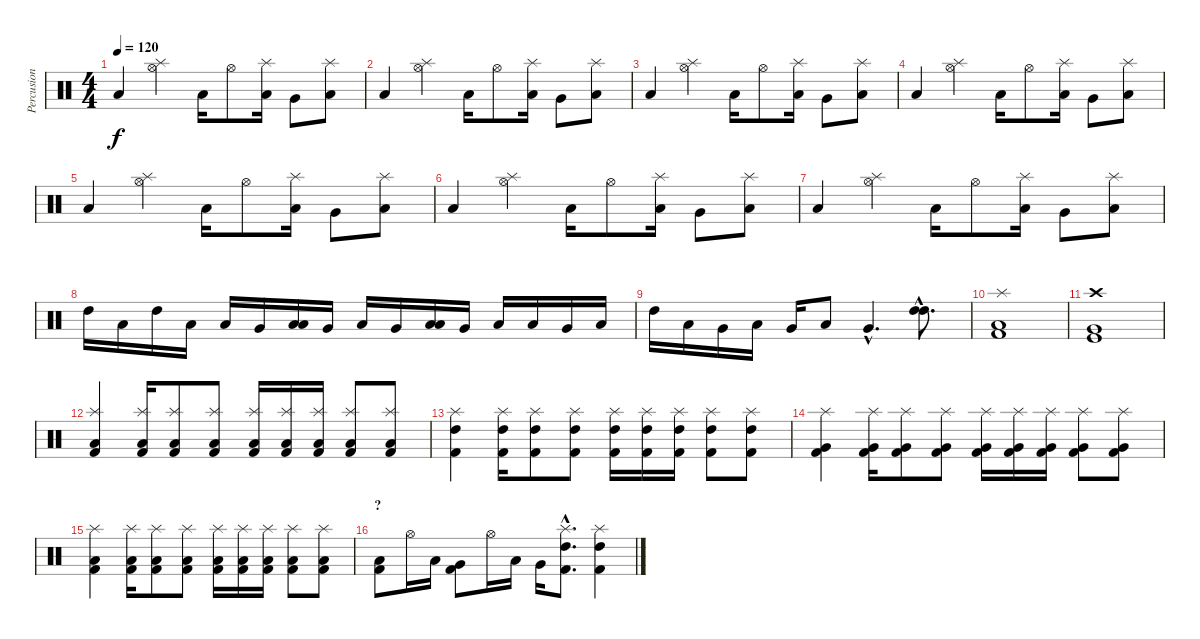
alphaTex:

\track ("Percusion" "Percusion") {instrument percussion}
\staff {score}
\articulation defaults
\ts (4 4)
\tempo 120
\clef neutral
\ks c "Low Tom (hit)".4{dy f}
("Hi-Hat (open)" "Splash (hit)").4 "Low Tom (hit)".16 "Hi-Hat (open)".8 ("Low Tom (hit)" "Splash (hit)").16 "Very Low Tom (hit)".8 ("Low Floor Tom (hit)" "Splash (hit)").8 |
"Low Tom (hit)".4 ("Hi-Hat (open)" "Splash (hit)").4 "Low Tom (hit)".16 "Hi-Hat (open)".8 ("Low Tom (hit)" "Splash (hit)").16 "Very Low Tom (hit)".8 ("Low Floor Tom (hit)" "Splash (hit)").8 |
"Low Tom (hit)".4 ("Hi-Hat (open)" "Splash (hit)").4 "Low Tom (hit)".16 "Hi-Hat (open)".8 ("Low Tom (hit)" "Splash (hit)").16 "Very Low Tom (hit)".8 ("Low Floor Tom (hit)" "Splash (hit)").8 |
"Low Tom (hit)".4 ("Hi-Hat (open)" "Splash (hit)").4 "Low Tom (hit)".16 "Hi-Hat (open)".8 ("Low Tom (hit)" "Splash (hit)").16 "Very Low Tom (hit)".8 ("Low Floor Tom (hit)" "Splash (hit)").8 |
"Low Tom (hit)".4 ("Hi-Hat (open)" "Splash (hit)").4 "Low Tom (hit)".16 "Hi-Hat (open)".8 ("Low Tom (hit)" "Splash (hit)").16 "Very Low Tom (hit)".8 ("Low Floor Tom (hit)" "Splash (hit)").8 |
"Low Tom (hit)".4 ("Hi-Hat (open)" "Splash (hit)").4 "Low Tom (hit)".16 "Hi-Hat (open)".8 ("Low Tom (hit)" "Splash (hit)").16 "Very Low Tom (hit)".8 ("Low Floor Tom (hit)" "Splash (hit)").8 |
"Low Tom (hit)".4 ("Hi-Hat (open)" "Splash (hit)").4 "Low Tom (hit)".16 "Hi-Hat (open)".8 ("Low Tom (hit)" "Splash (hit)").16 "Very Low Tom (hit)".8 ("Low Floor Tom (hit)" "Splash (hit)").8 |
"High Tom (hit)".16{volume 10} "Low Tom (hit)".16 "High Tom (hit)".16 "Low Tom (hit)".16 "Low Tom (hit)".16 "Very Low Tom (hit)".16 ("Low Tom (hit)" "Low Floor Tom (hit)").16 "Very Low Tom (hit)".16 "Low Tom (hit)".16 "Very Low Tom (hit)".16 ("Low Tom (hit)" "Low Floor Tom (hit)").16 "Very Low Tom (hit)".16 "Low Floor Tom (hit)".16 "Low Tom (hit)".16 "Very Low Tom (hit)".16 "Low Floor Tom (hit)".16 |
"High Tom (hit)".16{volume 14} "Low Tom (hit)".16 "Very Low Tom (hit)".16 "Low Tom (hit)".16 "Very Low Tom (hit)".16 "Low Floor Tom (hit)".8 "Very Low Tom (hit)"{hac}.4{d} ("High Tom (hit)"{hac} "High Tom (hit)"{hac}).8{d} |
("Low Tom (hit)" "Splash (hit)" "Kick (hit) 2").1 |
("Very Low Tom (hit)" "Crash high (hit)" "Kick (hit)").1 |
("Low Tom (hit)" "Splash (hit)" "Kick (hit) 2").4{volume 11} ("Low Tom (hit)" "Splash (hit)" "Kick (hit) 2").16 ("Low Tom (hit)" "Splash (hit)" "Kick (hit) 2").8 ("Low Tom (hit)" "Splash (hit)" "Kick (hit) 2").8 ("Low Tom (hit)" "Splash (hit)" "Kick (hit) 2").16 ("Low Tom (hit)" "Splash (hit)" "Kick (hit) 2").16 ("Low Tom (hit)" "Splash (hit)" "Kick (hit) 2").16 ("Low Tom (hit)" "Splash (hit)" "Kick (hit) 2").8 ("Low Tom (hit)" "Splash (hit)" "Kick (hit) 2").8 |
("High Tom (hit)" "Splash (hit)" "Kick (hit) 2").4{volume 11} ("High Tom (hit)" "Splash (hit)" "Kick (hit) 2").16 ("High Tom (hit)" "Splash (hit)" "Kick (hit) 2").8 ("High Tom (hit)" "Splash (hit)" "Kick (hit) 2").8 ("High Tom (hit)" "Splash (hit)" "Kick (hit) 2").16 ("High Tom (hit)" "Splash (hit)" "Kick (hit) 2").16 ("High Tom (hit)" "Splash (hit)" "Kick (hit) 2").16 ("High Tom (hit)" "Splash (hit)" "Kick (hit) 2").8 ("High Tom (hit)" "Splash (hit)" "Kick (hit) 2").8 |
("Very Low Tom (hit)" "Splash (hit)" "Kick (hit) 2").4{volume 11} ("Very Low Tom (hit)" "Splash (hit)" "Kick (hit) 2").16 ("Very Low Tom (hit)" "Splash (hit)" "Kick (hit) 2").8 ("Very Low Tom (hit)" "Splash (hit)" "Kick (hit) 2").8 ("Very Low Tom (hit)" "Splash (hit)" "Kick (hit) 2").16 ("Very Low Tom (hit)" "Splash (hit)" "Kick (hit) 2").16 ("Very Low Tom (hit)" "Splash (hit)" "Kick (hit) 2").16 ("Very Low Tom (hit)" "Splash (hit)" "Kick (hit) 2").8 ("Very Low Tom (hit)" "Splash (hit)" "Kick (hit) 2").8 |
("Low Floor Tom (hit)" "Splash (hit)" "Kick (hit) 2").4{volume 11} ("Low Floor Tom (hit)" "Splash (hit)" "Kick (hit) 2").16 ("Low Floor Tom (hit)" "Splash (hit)" "Kick (hit) 2").8 ("Low Floor Tom (hit)" "Splash (hit)" "Kick (hit) 2").8 ("Low Floor Tom (hit)" "Splash (hit)" "Kick (hit) 2").16 ("Low Floor Tom (hit)" "Splash (hit)" "Kick (hit) 2").16 ("Low Floor Tom (hit)" "Splash (hit)" "Kick (hit) 2").16 ("Low Floor Tom (hit)" "Splash (hit)" "Kick (hit) 2").8 ("Low Floor Tom (hit)" "Splash (hit)" "Kick (hit) 2").8 |
\section ("" "?")
("Low Tom (hit)" "Kick (hit) 2").8{volume 14} "Hi-Hat (open)".16 "Low Tom (hit)".16 ("Very Low Tom (hit)" "Kick (hit) 2").8 "Hi-Hat (open)".16 "Low Tom (hit)".16 "Very Low Tom (hit)".16 ("High Tom (hit)"{hac} "Splash (hit)"{hac} "Kick (hit) 2"{hac}).8{d} ("High Tom (hit)" "Splash (hit)" "Kick (hit) 2").4
